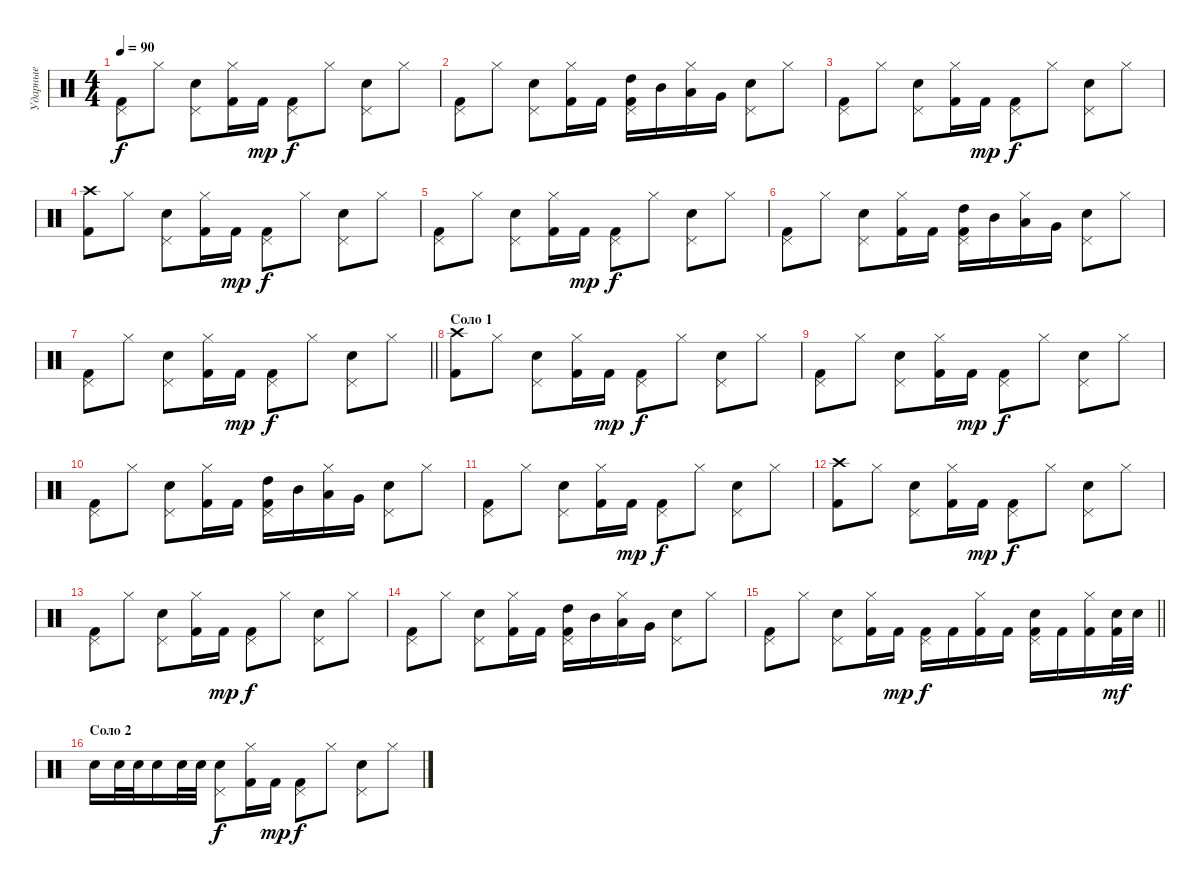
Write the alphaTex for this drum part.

\track ("Ударные" "Ударные") {instrument percussion}
\staff {score}
\articulation defaults
\ts (4 4)
\tempo 90
\clef neutral
\ks c
("Pedal Hi-Hat (hit)" "Kick (hit) 2").8{dy f} "Hi-Hat (closed)".8 ("Pedal Hi-Hat (hit)" "Snare (hit) 2").8 ("Hi-Hat (closed)" "Kick (hit) 2").16 "Kick (hit) 2".16{dy mp} ("Pedal Hi-Hat (hit)" "Kick (hit) 2").8{dy f} "Hi-Hat (closed)".8 ("Pedal Hi-Hat (hit)" "Snare (hit) 2").8 "Hi-Hat (closed)".8 |
("Pedal Hi-Hat (hit)" "Kick (hit) 2").8 "Hi-Hat (closed)".8 ("Pedal Hi-Hat (hit)" "Snare (hit) 2").8 ("Hi-Hat (closed)" "Kick (hit) 2").16 "Kick (hit) 2".16 ("Pedal Hi-Hat (hit)" "High Tom (hit)" "Kick (hit) 2").16 "Mid Tom (hit)".16 ("Hi-Hat (closed)" "Low Tom (hit)").16 "Very Low Tom (hit)".16 ("Pedal Hi-Hat (hit)" "Snare (hit) 2").8 "Hi-Hat (closed)".8 |
("Pedal Hi-Hat (hit)" "Kick (hit) 2").8 "Hi-Hat (closed)".8 ("Pedal Hi-Hat (hit)" "Snare (hit) 2").8 ("Hi-Hat (closed)" "Kick (hit) 2").16 "Kick (hit) 2".16{dy mp} ("Pedal Hi-Hat (hit)" "Kick (hit) 2").8{dy f} "Hi-Hat (closed)".8 ("Pedal Hi-Hat (hit)" "Snare (hit) 2").8 "Hi-Hat (closed)".8 |
("Crash high (hit)" "Kick (hit) 2").8 "Hi-Hat (closed)".8 ("Pedal Hi-Hat (hit)" "Snare (hit) 2").8 ("Hi-Hat (closed)" "Kick (hit) 2").16 "Kick (hit) 2".16{dy mp} ("Pedal Hi-Hat (hit)" "Kick (hit) 2").8{dy f} "Hi-Hat (closed)".8 ("Pedal Hi-Hat (hit)" "Snare (hit) 2").8 "Hi-Hat (closed)".8 |
("Pedal Hi-Hat (hit)" "Kick (hit) 2").8 "Hi-Hat (closed)".8 ("Pedal Hi-Hat (hit)" "Snare (hit) 2").8 ("Hi-Hat (closed)" "Kick (hit) 2").16 "Kick (hit) 2".16{dy mp} ("Pedal Hi-Hat (hit)" "Kick (hit) 2").8{dy f} "Hi-Hat (closed)".8 ("Pedal Hi-Hat (hit)" "Snare (hit) 2").8 "Hi-Hat (closed)".8 |
("Pedal Hi-Hat (hit)" "Kick (hit) 2").8 "Hi-Hat (closed)".8 ("Pedal Hi-Hat (hit)" "Snare (hit) 2").8 ("Hi-Hat (closed)" "Kick (hit) 2").16 "Kick (hit) 2".16 ("Pedal Hi-Hat (hit)" "High Tom (hit)" "Kick (hit) 2").16 "Mid Tom (hit)".16 ("Hi-Hat (closed)" "Low Tom (hit)").16 "Very Low Tom (hit)".16 ("Pedal Hi-Hat (hit)" "Snare (hit) 2").8 "Hi-Hat (closed)".8 |
\barLineRight lightlight
("Pedal Hi-Hat (hit)" "Kick (hit) 2").8 "Hi-Hat (closed)".8 ("Pedal Hi-Hat (hit)" "Snare (hit) 2").8 ("Hi-Hat (closed)" "Kick (hit) 2").16 "Kick (hit) 2".16{dy mp} ("Pedal Hi-Hat (hit)" "Kick (hit) 2").8{dy f} "Hi-Hat (closed)".8 ("Pedal Hi-Hat (hit)" "Snare (hit) 2").8 "Hi-Hat (closed)".8 |
\section ("" "Соло 1")
("Crash high (hit)" "Kick (hit) 2").8 "Hi-Hat (closed)".8 ("Pedal Hi-Hat (hit)" "Snare (hit) 2").8 ("Hi-Hat (closed)" "Kick (hit) 2").16 "Kick (hit) 2".16{dy mp} ("Pedal Hi-Hat (hit)" "Kick (hit) 2").8{dy f} "Hi-Hat (closed)".8 ("Pedal Hi-Hat (hit)" "Snare (hit) 2").8 "Hi-Hat (closed)".8 |
("Pedal Hi-Hat (hit)" "Kick (hit) 2").8 "Hi-Hat (closed)".8 ("Pedal Hi-Hat (hit)" "Snare (hit) 2").8 ("Hi-Hat (closed)" "Kick (hit) 2").16 "Kick (hit) 2".16{dy mp} ("Pedal Hi-Hat (hit)" "Kick (hit) 2").8{dy f} "Hi-Hat (closed)".8 ("Pedal Hi-Hat (hit)" "Snare (hit) 2").8 "Hi-Hat (closed)".8 |
("Pedal Hi-Hat (hit)" "Kick (hit) 2").8 "Hi-Hat (closed)".8 ("Pedal Hi-Hat (hit)" "Snare (hit) 2").8 ("Hi-Hat (closed)" "Kick (hit) 2").16 "Kick (hit) 2".16 ("Pedal Hi-Hat (hit)" "High Tom (hit)" "Kick (hit) 2").16 "Mid Tom (hit)".16 ("Hi-Hat (closed)" "Low Tom (hit)").16 "Very Low Tom (hit)".16 ("Pedal Hi-Hat (hit)" "Snare (hit) 2").8 "Hi-Hat (closed)".8 |
("Pedal Hi-Hat (hit)" "Kick (hit) 2").8 "Hi-Hat (closed)".8 ("Pedal Hi-Hat (hit)" "Snare (hit) 2").8 ("Hi-Hat (closed)" "Kick (hit) 2").16 "Kick (hit) 2".16{dy mp} ("Pedal Hi-Hat (hit)" "Kick (hit) 2").8{dy f} "Hi-Hat (closed)".8 ("Pedal Hi-Hat (hit)" "Snare (hit) 2").8 "Hi-Hat (closed)".8 |
("Crash high (hit)" "Kick (hit) 2").8 "Hi-Hat (closed)".8 ("Pedal Hi-Hat (hit)" "Snare (hit) 2").8 ("Hi-Hat (closed)" "Kick (hit) 2").16 "Kick (hit) 2".16{dy mp} ("Pedal Hi-Hat (hit)" "Kick (hit) 2").8{dy f} "Hi-Hat (closed)".8 ("Pedal Hi-Hat (hit)" "Snare (hit) 2").8 "Hi-Hat (closed)".8 |
("Pedal Hi-Hat (hit)" "Kick (hit) 2").8 "Hi-Hat (closed)".8 ("Pedal Hi-Hat (hit)" "Snare (hit) 2").8 ("Hi-Hat (closed)" "Kick (hit) 2").16 "Kick (hit) 2".16{dy mp} ("Pedal Hi-Hat (hit)" "Kick (hit) 2").8{dy f} "Hi-Hat (closed)".8 ("Pedal Hi-Hat (hit)" "Snare (hit) 2").8 "Hi-Hat (closed)".8 |
("Pedal Hi-Hat (hit)" "Kick (hit) 2").8 "Hi-Hat (closed)".8 ("Pedal Hi-Hat (hit)" "Snare (hit) 2").8 ("Hi-Hat (closed)" "Kick (hit) 2").16 "Kick (hit) 2".16 ("Pedal Hi-Hat (hit)" "High Tom (hit)" "Kick (hit) 2").16 "Mid Tom (hit)".16 ("Hi-Hat (closed)" "Low Tom (hit)").16 "Very Low Tom (hit)".16 ("Pedal Hi-Hat (hit)" "Snare (hit) 2").8 "Hi-Hat (closed)".8 |
\barLineRight lightlight
("Pedal Hi-Hat (hit)" "Kick (hit) 2").8 "Hi-Hat (closed)".8 ("Pedal Hi-Hat (hit)" "Snare (hit) 2").8 ("Hi-Hat (closed)" "Kick (hit) 2").16 "Kick (hit) 2".16{dy mp} ("Pedal Hi-Hat (hit)" "Kick (hit) 2").16{dy f} "Kick (hit) 2".16 ("Hi-Hat (closed)" "Kick (hit) 2").16 "Kick (hit) 2".16 ("Pedal Hi-Hat (hit)" "Snare (hit) 2" "Kick (hit) 2").16 "Kick (hit) 2".16 ("Hi-Hat (closed)" "Kick (hit) 2").16 ("Snare (hit) 2" "Kick (hit) 2").32{dy mf} "Snare (hit) 2".32 |
\section ("" "Соло 2")
"Snare (hit) 2".16 "Snare (hit) 2".32 "Snare (hit) 2".32 "Snare (hit) 2".16 "Snare (hit) 2".32 "Snare (hit) 2".32 ("Pedal Hi-Hat (hit)" "Snare (hit) 2").8{dy f} ("Hi-Hat (closed)" "Kick (hit) 2").16 "Kick (hit) 2".16{dy mp} ("Pedal Hi-Hat (hit)" "Kick (hit) 2").8{dy f} "Hi-Hat (closed)".8 ("Pedal Hi-Hat (hit)" "Snare (hit) 2").8 "Hi-Hat (closed)".8
